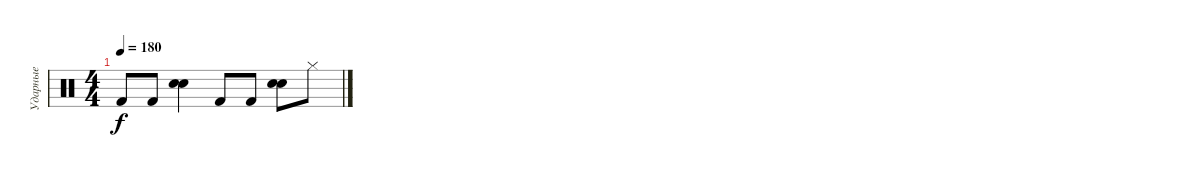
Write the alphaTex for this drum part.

\track ("Ударные" "Ударные") {instrument percussion}
\staff {score}
\articulation defaults
\ts (4 4)
\tempo 180
\clef neutral
\ks c "Kick (hit) 2".8{dy f} "Kick (hit) 2".8
("Snare (hit) 2" "Electric Snare (hit)").4 "Kick (hit) 2".8 "Kick (hit) 2".8 ("Snare (hit) 2" "Electric Snare (hit)").8 "Hi-Hat (closed)".8
